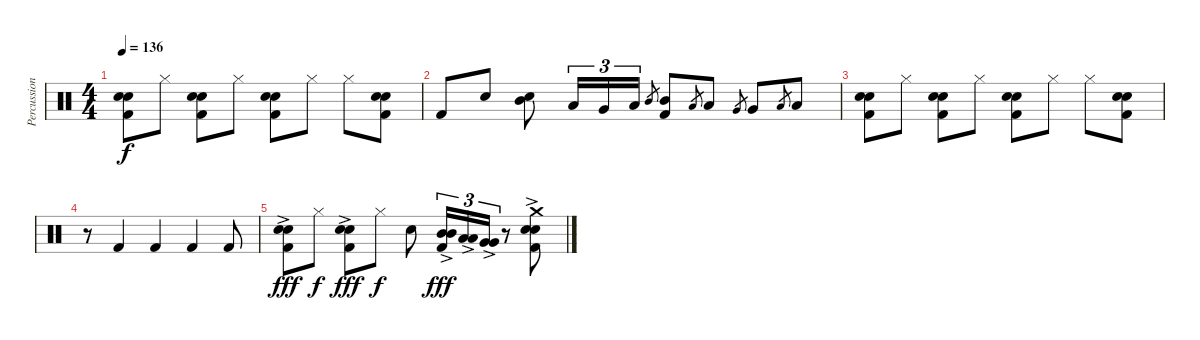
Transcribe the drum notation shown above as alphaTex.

\track ("Percussion" "Percussion") {instrument percussion}
\staff {score}
\articulation defaults
\ts (4 4)
\tempo 136
\clef neutral
\ks c
("Snare (hit) 2" "Snare (hit) 2" "Kick (hit) 2").8{dy f} "Hi-Hat (closed)".8 ("Snare (hit) 2" "Snare (hit) 2" "Kick (hit) 2").8 "Hi-Hat (closed)".8 ("Snare (hit) 2" "Snare (hit) 2" "Kick (hit) 2").8 "Hi-Hat (closed)".8 "Hi-Hat (closed)".8 ("Snare (hit) 2" "Snare (hit) 2" "Kick (hit) 2").8 |
"Kick (hit) 2".8 "Snare (hit) 2".8 ("Mid Tom (hit)" "Snare (hit) 2").8 "Low Tom (hit)".16{tu (3 2)} "Very Low Tom (hit)".16{tu (3 2)} "Low Floor Tom (hit)".16{tu (3 2)} "Mid Tom (hit)".8{gr} ("Mid Tom (hit)" "Kick (hit) 2").8 "Low Tom (hit)".8{gr} "Low Tom (hit)".8 "Very Low Tom (hit)".8{gr} "Very Low Tom (hit)".8 "Low Floor Tom (hit)".8{gr} "Low Floor Tom (hit)".8 |
("Snare (hit) 2" "Snare (hit) 2" "Kick (hit) 2").8 "Hi-Hat (closed)".8 ("Snare (hit) 2" "Snare (hit) 2" "Kick (hit) 2").8 "Hi-Hat (closed)".8 ("Snare (hit) 2" "Snare (hit) 2" "Kick (hit) 2").8 "Hi-Hat (closed)".8 "Hi-Hat (closed)".8 ("Snare (hit) 2" "Snare (hit) 2" "Kick (hit) 2").8 |
r.8 "Kick (hit) 2".4 "Kick (hit) 2".4 "Kick (hit) 2".4 "Kick (hit) 2".8 |
("Snare (hit) 2"{ac} "Snare (hit) 2" "Kick (hit) 2"{ac}).8{dy fff} "Hi-Hat (closed)".8{dy f} ("Snare (hit) 2"{ac} "Snare (hit) 2" "Kick (hit) 2"{ac}).8{dy fff} "Hi-Hat (closed)".8{dy f} "Snare (hit) 2".8 ("Mid Tom (hit)"{ac} "Mid Tom (hit)" "Kick (hit) 2"{ac}).16{tu (3 2) dy fff} ("Low Tom (hit)"{ac} "Low Tom (hit)").16{tu (3 2)} ("Very Low Tom (hit)"{ac} "Very Low Tom (hit)").16{tu (3 2)} r.8 ("Crash medium (hit)"{ac} "Snare (hit) 2"{ac} "Snare (hit) 2"{ac} "Kick (hit) 2"{ac}).8
